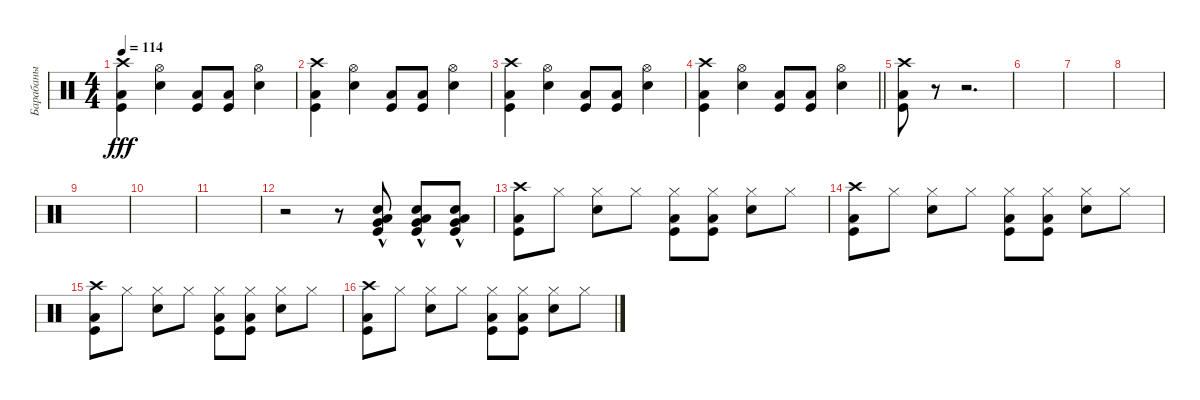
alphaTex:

\track ("Барабаны" "Барабаны") {instrument percussion}
\staff {score}
\articulation defaults
\ts (4 4)
\tempo 114
\clef neutral
\ks c
("Low Floor Tom (hit)" "Kick (hit)" "Crash high (hit)").4{dy fff} ("Electric Snare (hit)" "Hi-Hat (open)").4 ("Low Floor Tom (hit)" "Kick (hit)").8 ("Low Floor Tom (hit)" "Kick (hit)").8 ("Electric Snare (hit)" "Hi-Hat (open)").4 |
("Low Floor Tom (hit)" "Kick (hit)" "Crash high (hit)").4 ("Electric Snare (hit)" "Hi-Hat (open)").4 ("Low Floor Tom (hit)" "Kick (hit)").8 ("Low Floor Tom (hit)" "Kick (hit)").8 ("Electric Snare (hit)" "Hi-Hat (open)").4 |
("Low Floor Tom (hit)" "Kick (hit)" "Crash high (hit)").4 ("Electric Snare (hit)" "Hi-Hat (open)").4 ("Low Floor Tom (hit)" "Kick (hit)").8 ("Low Floor Tom (hit)" "Kick (hit)").8 ("Electric Snare (hit)" "Hi-Hat (open)").4 |
\barLineRight lightlight
("Low Floor Tom (hit)" "Kick (hit)" "Crash high (hit)").4 ("Electric Snare (hit)" "Hi-Hat (open)").4 ("Low Floor Tom (hit)" "Kick (hit)").8 ("Low Floor Tom (hit)" "Kick (hit)").8 ("Electric Snare (hit)" "Hi-Hat (open)").4 |
("Low Floor Tom (hit)" "Kick (hit)" "Crash high (hit)").8 r.8 r.2{d} |
|
|
|
|
|
|
r.2 r.8 ("Low Floor Tom (hit)"{hac} "Kick (hit)" "Very Low Tom (hit)" "Electric Snare (hit)").8 ("Low Floor Tom (hit)"{hac} "Kick (hit)" "Very Low Tom (hit)" "Electric Snare (hit)").8 ("Low Floor Tom (hit)"{hac} "Kick (hit)" "Very Low Tom (hit)" "Electric Snare (hit)").8 |
("Low Floor Tom (hit)" "Kick (hit)" "Crash high (hit)").8 "Hi-Hat (closed)".8 ("Electric Snare (hit)" "Hi-Hat (closed)").8 "Hi-Hat (closed)".8 ("Low Floor Tom (hit)" "Kick (hit)" "Hi-Hat (closed)").8 ("Low Floor Tom (hit)" "Kick (hit)" "Hi-Hat (closed)").8 ("Electric Snare (hit)" "Hi-Hat (closed)").8 "Hi-Hat (closed)".8 |
("Low Floor Tom (hit)" "Kick (hit)" "Crash high (hit)").8 "Hi-Hat (closed)".8 ("Electric Snare (hit)" "Hi-Hat (closed)").8 "Hi-Hat (closed)".8 ("Low Floor Tom (hit)" "Kick (hit)" "Hi-Hat (closed)").8 ("Low Floor Tom (hit)" "Kick (hit)" "Hi-Hat (closed)").8 ("Electric Snare (hit)" "Hi-Hat (closed)").8 "Hi-Hat (closed)".8 |
("Low Floor Tom (hit)" "Kick (hit)" "Crash high (hit)").8 "Hi-Hat (closed)".8 ("Electric Snare (hit)" "Hi-Hat (closed)").8 "Hi-Hat (closed)".8 ("Low Floor Tom (hit)" "Kick (hit)" "Hi-Hat (closed)").8 ("Low Floor Tom (hit)" "Kick (hit)" "Hi-Hat (closed)").8 ("Electric Snare (hit)" "Hi-Hat (closed)").8 "Hi-Hat (closed)".8 |
("Low Floor Tom (hit)" "Kick (hit)" "Crash high (hit)").8 "Hi-Hat (closed)".8 ("Electric Snare (hit)" "Hi-Hat (closed)").8 "Hi-Hat (closed)".8 ("Low Floor Tom (hit)" "Kick (hit)" "Hi-Hat (closed)").8 ("Low Floor Tom (hit)" "Kick (hit)" "Hi-Hat (closed)").8 ("Electric Snare (hit)" "Hi-Hat (closed)").8 "Hi-Hat (closed)".8
